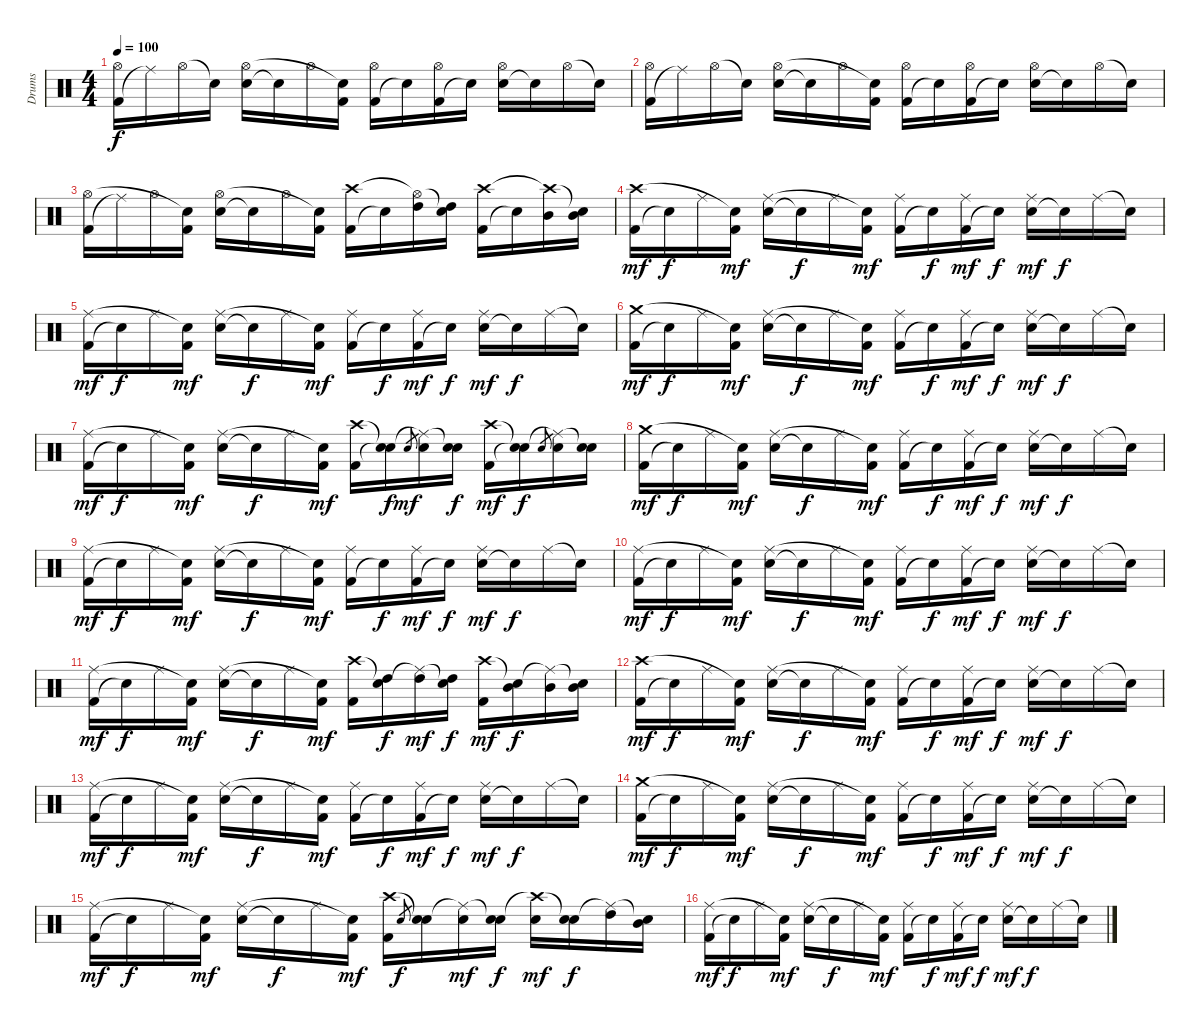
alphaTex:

\track ("Drums" "Drums") {instrument percussion}
\staff {score}
\articulation defaults
\ts (4 4)
\tempo 100
\clef neutral
\ks c
("Kick (hit) 2" "Hi-Hat (open)").16{dy f} "Ride (middle)"{t}.16 "Hi-Hat (open)".16 "Snare (hit)"{t}.16 ("Snare (hit) 2" "Hi-Hat (open)").16 "Snare (hit)"{t}.16 "Hi-Hat (open)".16 ("Kick (hit) 2" "Snare (hit)"{t}).16 ("Kick (hit) 2" "Hi-Hat (open)").16 "Snare (hit)"{t}.16 ("Kick (hit) 2" "Hi-Hat (open)").16 "Snare (hit)"{t}.16 ("Snare (hit) 2" "Hi-Hat (open)").16 "Snare (hit)"{t}.16 "Hi-Hat (open)".16 "Snare (hit)"{t}.16 |
("Kick (hit) 2" "Hi-Hat (open)").16 "Ride (middle)"{t}.16 "Hi-Hat (open)".16 "Snare (hit)"{t}.16 ("Snare (hit) 2" "Hi-Hat (open)").16 "Snare (hit)"{t}.16 "Hi-Hat (open)".16 ("Kick (hit) 2" "Snare (hit)"{t}).16 ("Kick (hit) 2" "Hi-Hat (open)").16 "Snare (hit)"{t}.16 ("Kick (hit) 2" "Hi-Hat (open)").16 "Snare (hit)"{t}.16 ("Snare (hit) 2" "Hi-Hat (open)").16 "Snare (hit)"{t}.16 "Hi-Hat (open)".16 "Snare (hit)"{t}.16 |
("Kick (hit) 2" "Hi-Hat (open)").16 "Ride (middle)"{t}.16 "Hi-Hat (open)".16 ("Kick (hit) 2" "Snare (hit)"{t}).16 ("Snare (hit) 2" "Hi-Hat (open)").16 "Snare (hit)"{t}.16 "Hi-Hat (open)".16 ("Kick (hit) 2" "Snare (hit)"{t}).16 ("Kick (hit) 2" "Crash high (hit)").16 "Snare (hit)"{t}.16 ("High Tom (hit)" "Hi-Hat (open)"{t}).16 ("High Tom (hit)" "Snare (hit)"{t}).16 ("Kick (hit) 2" "Crash high (hit)").16 "Snare (hit)"{t}.16 ("Mid Tom (hit)" "Crash high (hit)"{t}).16 ("Mid Tom (hit)" "Snare (hit)"{t}).16 |
("Kick (hit) 2" "Crash high (hit)").16{dy mf} "Snare (hit)"{t}.16{dy f} "Ride (middle)".16 ("Kick (hit) 2" "Snare (hit)"{t}).16{dy mf} ("Snare (hit) 2" "Ride (middle)").16 "Snare (hit)"{t}.16{dy f} "Ride (middle)".16 ("Kick (hit) 2" "Snare (hit)"{t}).16{dy mf} ("Kick (hit) 2" "Ride (middle)").16 "Snare (hit)"{t}.16{dy f} ("Kick (hit) 2" "Ride (middle)").16{dy mf} "Snare (hit)"{t}.16{dy f} ("Snare (hit) 2" "Ride (middle)").16{dy mf} "Snare (hit)"{t}.16{dy f} "Ride (middle)".16 "Snare (hit)"{t}.16 |
("Kick (hit) 2" "Ride (middle)").16{dy mf} "Snare (hit)"{t}.16{dy f} "Ride (middle)".16 ("Kick (hit) 2" "Snare (hit)"{t}).16{dy mf} ("Snare (hit) 2" "Ride (middle)").16 "Snare (hit)"{t}.16{dy f} "Ride (middle)".16 ("Kick (hit) 2" "Snare (hit)"{t}).16{dy mf} ("Kick (hit) 2" "Ride (middle)").16 "Snare (hit)"{t}.16{dy f} ("Kick (hit) 2" "Ride (middle)").16{dy mf} "Snare (hit)"{t}.16{dy f} ("Snare (hit) 2" "Ride (middle)").16{dy mf} "Snare (hit)"{t}.16{dy f} "Ride (middle)".16 "Snare (hit)"{t}.16 |
("Kick (hit) 2" "Crash medium (hit)").16{dy mf} "Snare (hit)"{t}.16{dy f} "Ride (middle)".16 ("Kick (hit) 2" "Snare (hit)"{t}).16{dy mf} ("Snare (hit) 2" "Ride (middle)").16 "Snare (hit)"{t}.16{dy f} "Ride (middle)".16 ("Kick (hit) 2" "Snare (hit)"{t}).16{dy mf} ("Kick (hit) 2" "Ride (middle)").16 "Snare (hit)"{t}.16{dy f} ("Kick (hit) 2" "Ride (middle)").16{dy mf} "Snare (hit)"{t}.16{dy f} ("Snare (hit) 2" "Ride (middle)").16{dy mf} "Snare (hit)"{t}.16{dy f} "Ride (middle)".16 "Snare (hit)"{t}.16 |
("Kick (hit) 2" "Ride (middle)").16{dy mf} "Snare (hit)"{t}.16{dy f} "Ride (middle)".16 ("Kick (hit) 2" "Snare (hit)"{t}).16{dy mf} ("Snare (hit) 2" "Ride (middle)").16 "Snare (hit)"{t}.16{dy f} "Ride (middle)".16 ("Kick (hit) 2" "Snare (hit)"{t}).16{dy mf} ("Kick (hit) 2" "Crash high (hit)").16 ("Snare (hit)"{t} "Snare (hit)"{t}).16{dy f} "Snare (hit) 2".8{gr dy mf} ("Snare (hit) 2" "Ride (middle)"{t}).16 ("Snare (hit) 2" "Snare (hit)"{t}).16{dy f} ("Kick (hit) 2" "Crash high (hit)").16{dy mf} ("Snare (hit)"{t} "Snare (hit)"{t}).16{dy f} "Snare (hit) 2".8{gr} ("Snare (hit) 2" "Ride (middle)"{t}).16 ("Snare (hit) 2" "Snare (hit)"{t}).16 |
("Kick (hit) 2" "Crash medium (hit)").16{dy mf} "Snare (hit)"{t}.16{dy f} "Ride (middle)".16 ("Kick (hit) 2" "Snare (hit)"{t}).16{dy mf} ("Snare (hit) 2" "Ride (middle)").16 "Snare (hit)"{t}.16{dy f} "Ride (middle)".16 ("Kick (hit) 2" "Snare (hit)"{t}).16{dy mf} ("Kick (hit) 2" "Ride (middle)").16 "Snare (hit)"{t}.16{dy f} ("Kick (hit) 2" "Ride (middle)").16{dy mf} "Snare (hit)"{t}.16{dy f} ("Snare (hit) 2" "Ride (middle)").16{dy mf} "Snare (hit)"{t}.16{dy f} "Ride (middle)".16 "Snare (hit)"{t}.16 |
("Kick (hit) 2" "Ride (middle)").16{dy mf} "Snare (hit)"{t}.16{dy f} "Ride (middle)".16 ("Kick (hit) 2" "Snare (hit)"{t}).16{dy mf} ("Snare (hit) 2" "Ride (middle)").16 "Snare (hit)"{t}.16{dy f} "Ride (middle)".16 ("Kick (hit) 2" "Snare (hit)"{t}).16{dy mf} ("Kick (hit) 2" "Ride (middle)").16 "Snare (hit)"{t}.16{dy f} ("Kick (hit) 2" "Ride (middle)").16{dy mf} "Snare (hit)"{t}.16{dy f} ("Snare (hit) 2" "Ride (middle)").16{dy mf} "Snare (hit)"{t}.16{dy f} "Ride (middle)".16 "Snare (hit)"{t}.16 |
("Kick (hit) 2" "Ride (middle)").16{dy mf} "Snare (hit)"{t}.16{dy f} "Ride (middle)".16 ("Kick (hit) 2" "Snare (hit)"{t}).16{dy mf} ("Snare (hit) 2" "Ride (middle)").16 "Snare (hit)"{t}.16{dy f} "Ride (middle)".16 ("Kick (hit) 2" "Snare (hit)"{t}).16{dy mf} ("Kick (hit) 2" "Ride (middle)").16 "Snare (hit)"{t}.16{dy f} ("Kick (hit) 2" "Ride (middle)").16{dy mf} "Snare (hit)"{t}.16{dy f} ("Snare (hit) 2" "Ride (middle)").16{dy mf} "Snare (hit)"{t}.16{dy f} "Ride (middle)".16 "Snare (hit)"{t}.16 |
("Kick (hit) 2" "Ride (middle)").16{dy mf} "Snare (hit)"{t}.16{dy f} "Ride (middle)".16 ("Kick (hit) 2" "Snare (hit)"{t}).16{dy mf} ("Snare (hit) 2" "Ride (middle)").16 "Snare (hit)"{t}.16{dy f} "Ride (middle)".16 ("Kick (hit) 2" "Snare (hit)"{t}).16{dy mf} ("Kick (hit) 2" "Crash high (hit)").16 ("High Tom (hit)" "Snare (hit)"{t}).16{dy f} ("High Tom (hit)" "Ride (middle)"{t}).16{dy mf} ("High Tom (hit)" "Snare (hit)"{t}).16{dy f} ("Kick (hit) 2" "Crash high (hit)").16{dy mf} ("Mid Tom (hit)" "Snare (hit)"{t}).16{dy f} ("Mid Tom (hit)" "Ride (middle)"{t}).16 ("Mid Tom (hit)" "Snare (hit)"{t}).16 |
("Kick (hit) 2" "Crash high (hit)").16{dy mf} "Snare (hit)"{t}.16{dy f} "Ride (middle)".16 ("Kick (hit) 2" "Snare (hit)"{t}).16{dy mf} ("Snare (hit) 2" "Ride (middle)").16 "Snare (hit)"{t}.16{dy f} "Ride (middle)".16 ("Kick (hit) 2" "Snare (hit)"{t}).16{dy mf} ("Kick (hit) 2" "Ride (middle)").16 "Snare (hit)"{t}.16{dy f} ("Kick (hit) 2" "Ride (middle)").16{dy mf} "Snare (hit)"{t}.16{dy f} ("Snare (hit) 2" "Ride (middle)").16{dy mf} "Snare (hit)"{t}.16{dy f} "Ride (middle)".16 "Snare (hit)"{t}.16 |
("Kick (hit) 2" "Ride (middle)").16{dy mf} "Snare (hit)"{t}.16{dy f} "Ride (middle)".16 ("Kick (hit) 2" "Snare (hit)"{t}).16{dy mf} ("Snare (hit) 2" "Ride (middle)").16 "Snare (hit)"{t}.16{dy f} "Ride (middle)".16 ("Kick (hit) 2" "Snare (hit)"{t}).16{dy mf} ("Kick (hit) 2" "Ride (middle)").16 "Snare (hit)"{t}.16{dy f} ("Kick (hit) 2" "Ride (middle)").16{dy mf} "Snare (hit)"{t}.16{dy f} ("Snare (hit) 2" "Ride (middle)").16{dy mf} "Snare (hit)"{t}.16{dy f} "Ride (middle)".16 "Snare (hit)"{t}.16 |
("Kick (hit) 2" "Crash medium (hit)").16{dy mf} "Snare (hit)"{t}.16{dy f} "Ride (middle)".16 ("Kick (hit) 2" "Snare (hit)"{t}).16{dy mf} ("Snare (hit) 2" "Ride (middle)").16 "Snare (hit)"{t}.16{dy f} "Ride (middle)".16 ("Kick (hit) 2" "Snare (hit)"{t}).16{dy mf} ("Kick (hit) 2" "Ride (middle)").16 "Snare (hit)"{t}.16{dy f} ("Kick (hit) 2" "Ride (middle)").16{dy mf} "Snare (hit)"{t}.16{dy f} ("Snare (hit) 2" "Ride (middle)").16{dy mf} "Snare (hit)"{t}.16{dy f} "Ride (middle)".16 "Snare (hit)"{t}.16 |
("Kick (hit) 2" "Ride (middle)").16{dy mf} "Snare (hit)"{t}.16{dy f} "Ride (middle)".16 ("Kick (hit) 2" "Snare (hit)"{t}).16{dy mf} ("Snare (hit) 2" "Ride (middle)").16 "Snare (hit)"{t}.16{dy f} "Ride (middle)".16 ("Kick (hit) 2" "Snare (hit)"{t}).16{dy mf} ("Kick (hit) 2" "Crash high (hit)").16 "Snare (hit) 2".8{gr dy f} ("Snare (hit) 2" "Snare (hit)"{t}).16 ("Snare (hit) 2" "Ride (middle)"{t}).16{dy mf} ("Snare (hit) 2" "Snare (hit)"{t}).16{dy f} ("Snare (hit) 2" "Crash high (hit)"{t}).16{dy mf} ("Snare (hit) 2" "Snare (hit)"{t}).16{dy f} ("High Tom (hit)" "Ride (middle)"{t}).16 ("Mid Tom (hit)" "Snare (hit)"{t}).16 |
("Kick (hit) 2" "Ride (middle)").16{dy mf} "Snare (hit)"{t}.16{dy f} "Ride (middle)".16 ("Kick (hit) 2" "Snare (hit)"{t}).16{dy mf} ("Snare (hit) 2" "Ride (middle)").16 "Snare (hit)"{t}.16{dy f} "Ride (middle)".16 ("Kick (hit) 2" "Snare (hit)"{t}).16{dy mf} ("Kick (hit) 2" "Ride (middle)").16 "Snare (hit)"{t}.16{dy f} ("Kick (hit) 2" "Ride (middle)").16{dy mf} "Snare (hit)"{t}.16{dy f} ("Snare (hit) 2" "Ride (middle)").16{dy mf} "Snare (hit)"{t}.16{dy f} "Ride (middle)".16 "Snare (hit)"{t}.16
